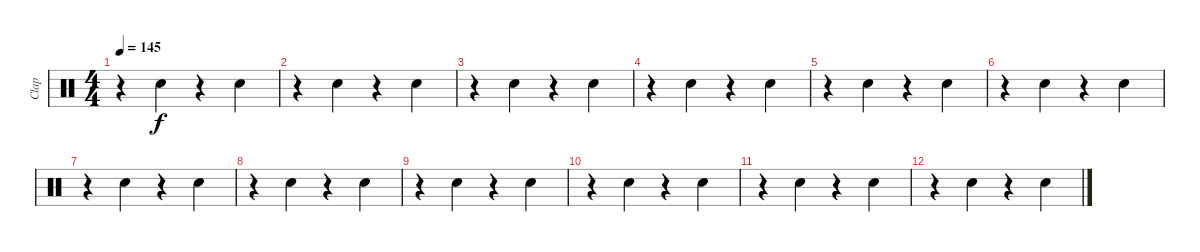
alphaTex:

\track ("Clap" "Clap") {instrument percussion}
\staff {score}
\articulation defaults
\ts (4 4)
\tempo 145
\clef neutral
\ks c
r.4{dy f} "Hand Clap (hit)".4 r.4 "Hand Clap (hit)".4 |
r.4 "Hand Clap (hit)".4 r.4 "Hand Clap (hit)".4 |
r.4 "Hand Clap (hit)".4 r.4 "Hand Clap (hit)".4 |
r.4 "Hand Clap (hit)".4 r.4 "Hand Clap (hit)".4 |
r.4 "Hand Clap (hit)".4 r.4 "Hand Clap (hit)".4 |
r.4 "Hand Clap (hit)".4 r.4 "Hand Clap (hit)".4 |
r.4 "Hand Clap (hit)".4 r.4 "Hand Clap (hit)".4 |
r.4 "Hand Clap (hit)".4 r.4 "Hand Clap (hit)".4 |
r.4 "Hand Clap (hit)".4 r.4 "Hand Clap (hit)".4 |
r.4 "Hand Clap (hit)".4 r.4 "Hand Clap (hit)".4 |
r.4 "Hand Clap (hit)".4 r.4 "Hand Clap (hit)".4 |
r.4 "Hand Clap (hit)".4 r.4 "Hand Clap (hit)".4
